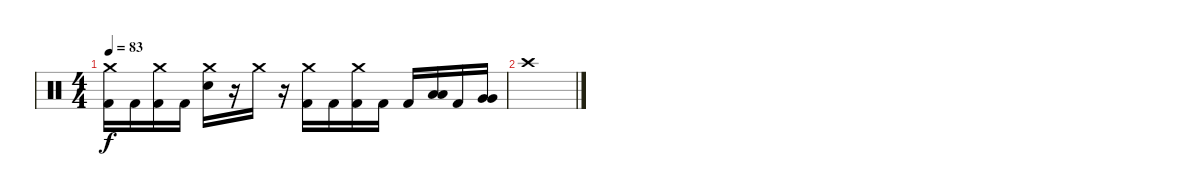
\track "" {instrument percussion}
\staff {score}
\articulation defaults
\ts (4 4)
\tempo 83
\clef neutral
\ks c
("Crash medium (hit)" "Kick (hit) 2").16{dy f} "Kick (hit) 2".16 ("Crash medium (hit)" "Kick (hit) 2").16 "Kick (hit) 2".16 ("Crash medium (hit)" "Snare (hit) 2").16 r.16 "Crash medium (hit)".16 r.16 ("Crash medium (hit)" "Kick (hit) 2").16 "Kick (hit) 2".16 ("Crash medium (hit)" "Kick (hit) 2").16 "Kick (hit) 2".16 "Kick (hit) 2".16 ("Low Floor Tom (hit)" "Low Floor Tom (hit)").16 "Kick (hit) 2".16 ("Very Low Tom (hit)" "Very Low Tom (hit)").16 |
"Crash high (hit)".1
